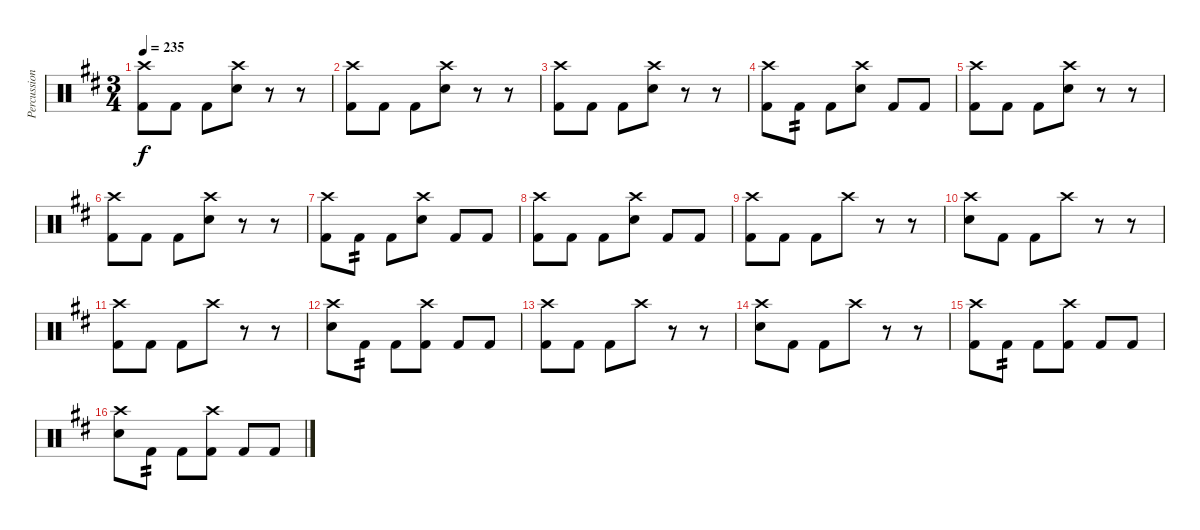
\track ("Percussion" "Percussion") {instrument percussion}
\staff {score}
\articulation defaults
\ts (3 4)
\tempo 235
\clef neutral
\ks d
("Crash high (hit)" "Kick (hit) 2").8{dy f} "Kick (hit) 2".8 "Kick (hit) 2".8 ("Crash high (hit)" "Electric Snare (hit)").8 r.8 r.8 |
("Crash high (hit)" "Kick (hit) 2").8 "Kick (hit) 2".8 "Kick (hit) 2".8 ("Crash high (hit)" "Electric Snare (hit)").8 r.8 r.8 |
("Crash high (hit)" "Kick (hit) 2").8 "Kick (hit) 2".8 "Kick (hit) 2".8 ("Crash high (hit)" "Electric Snare (hit)").8 r.8 r.8 |
("Crash high (hit)" "Kick (hit) 2").8 "Kick (hit) 2".8{tp 2} "Kick (hit) 2".8 ("Crash high (hit)" "Electric Snare (hit)").8 "Kick (hit) 2".8 "Kick (hit) 2".8 |
("Crash high (hit)" "Kick (hit) 2").8 "Kick (hit) 2".8 "Kick (hit) 2".8 ("Crash high (hit)" "Electric Snare (hit)").8 r.8 r.8 |
("Crash high (hit)" "Kick (hit) 2").8 "Kick (hit) 2".8 "Kick (hit) 2".8 ("Crash high (hit)" "Electric Snare (hit)").8 r.8 r.8 |
("Crash high (hit)" "Kick (hit) 2").8 "Kick (hit) 2".8{tp 2} "Kick (hit) 2".8 ("Crash high (hit)" "Electric Snare (hit)").8 "Kick (hit) 2".8 "Kick (hit) 2".8 |
("Crash high (hit)" "Kick (hit) 2").8 "Kick (hit) 2".8 "Kick (hit) 2".8 ("Crash high (hit)" "Electric Snare (hit)").8 "Kick (hit) 2".8 "Kick (hit) 2".8 |
("Crash high (hit)" "Kick (hit) 2").8 "Kick (hit) 2".8 "Kick (hit) 2".8 "Crash high (hit)".8 r.8 r.8 |
("Crash high (hit)" "Electric Snare (hit)").8 "Kick (hit) 2".8 "Kick (hit) 2".8 "Crash high (hit)".8 r.8 r.8 |
("Crash high (hit)" "Kick (hit) 2").8 "Kick (hit) 2".8 "Kick (hit) 2".8 "Crash high (hit)".8 r.8 r.8 |
("Crash high (hit)" "Electric Snare (hit)").8 "Kick (hit) 2".8{tp 2} "Kick (hit) 2".8 ("Crash high (hit)" "Kick (hit) 2").8 "Kick (hit) 2".8 "Kick (hit) 2".8 |
("Crash high (hit)" "Kick (hit) 2").8 "Kick (hit) 2".8 "Kick (hit) 2".8 "Crash high (hit)".8 r.8 r.8 |
("Crash high (hit)" "Electric Snare (hit)").8 "Kick (hit) 2".8 "Kick (hit) 2".8 "Crash high (hit)".8 r.8 r.8 |
("Crash high (hit)" "Kick (hit) 2").8 "Kick (hit) 2".8{tp 2} "Kick (hit) 2".8 ("Crash high (hit)" "Kick (hit) 2").8 "Kick (hit) 2".8 "Kick (hit) 2".8 |
("Crash high (hit)" "Electric Snare (hit)").8 "Kick (hit) 2".8{tp 2} "Kick (hit) 2".8 ("Crash high (hit)" "Kick (hit) 2").8 "Kick (hit) 2".8 "Kick (hit) 2".8
